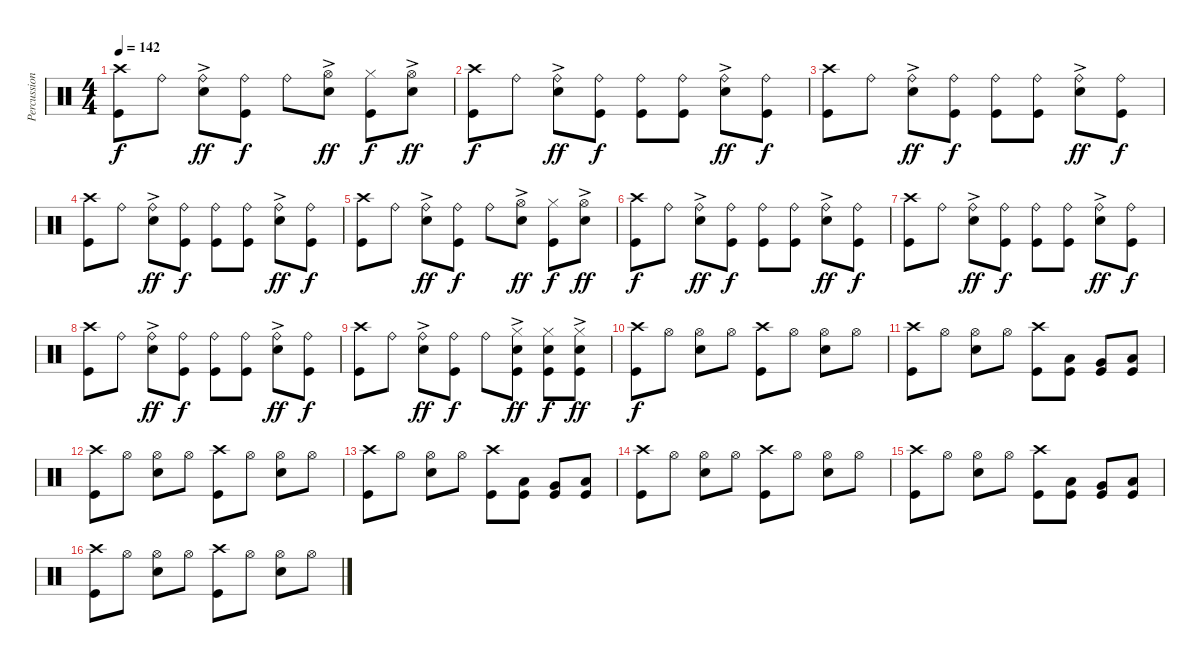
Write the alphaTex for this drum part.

\track ("Percussion" "Percussion") {instrument percussion}
\staff {score}
\articulation defaults
\ts (4 4)
\tempo 142
\clef neutral
\ks c
("Crash high (hit)" "Kick (hit)").8{dy f} "Ride (bell)".8 ("Ride (bell)" "Electric Snare (hit)"{ac}).8{dy ff} ("Ride (bell)" "Kick (hit)").8{dy f} "Ride (bell)".8 ("Hi-Hat (open)" "Electric Snare (hit)"{ac}).8{dy ff} ("Hi-Hat (closed)" "Kick (hit)").8{dy f} ("Hi-Hat (open)" "Electric Snare (hit)"{ac}).8{dy ff} |
("Crash high (hit)" "Kick (hit)").8{dy f} "Ride (bell)".8 ("Ride (bell)" "Electric Snare (hit)"{ac}).8{dy ff} ("Ride (bell)" "Kick (hit)").8{dy f} ("Ride (bell)" "Kick (hit)").8 ("Ride (bell)" "Kick (hit)").8 ("Ride (bell)" "Electric Snare (hit)"{ac}).8{dy ff} ("Ride (bell)" "Kick (hit)").8{dy f} |
("Crash high (hit)" "Kick (hit)").8 "Ride (bell)".8 ("Ride (bell)" "Electric Snare (hit)"{ac}).8{dy ff} ("Ride (bell)" "Kick (hit)").8{dy f} ("Ride (bell)" "Kick (hit)").8 ("Ride (bell)" "Kick (hit)").8 ("Ride (bell)" "Electric Snare (hit)"{ac}).8{dy ff} ("Ride (bell)" "Kick (hit)").8{dy f} |
("Crash high (hit)" "Kick (hit)").8 "Ride (bell)".8 ("Ride (bell)" "Electric Snare (hit)"{ac}).8{dy ff} ("Ride (bell)" "Kick (hit)").8{dy f} ("Ride (bell)" "Kick (hit)").8 ("Ride (bell)" "Kick (hit)").8 ("Ride (bell)" "Electric Snare (hit)"{ac}).8{dy ff} ("Ride (bell)" "Kick (hit)").8{dy f} |
("Crash high (hit)" "Kick (hit)").8 "Ride (bell)".8 ("Ride (bell)" "Electric Snare (hit)"{ac}).8{dy ff} ("Ride (bell)" "Kick (hit)").8{dy f} "Ride (bell)".8 ("Hi-Hat (open)" "Electric Snare (hit)"{ac}).8{dy ff} ("Hi-Hat (closed)" "Kick (hit)").8{dy f} ("Hi-Hat (open)" "Electric Snare (hit)"{ac}).8{dy ff} |
("Crash high (hit)" "Kick (hit)").8{dy f} "Ride (bell)".8 ("Ride (bell)" "Electric Snare (hit)"{ac}).8{dy ff} ("Ride (bell)" "Kick (hit)").8{dy f} ("Ride (bell)" "Kick (hit)").8 ("Ride (bell)" "Kick (hit)").8 ("Ride (bell)" "Electric Snare (hit)"{ac}).8{dy ff} ("Ride (bell)" "Kick (hit)").8{dy f} |
("Crash high (hit)" "Kick (hit)").8 "Ride (bell)".8 ("Ride (bell)" "Electric Snare (hit)"{ac}).8{dy ff} ("Ride (bell)" "Kick (hit)").8{dy f} ("Ride (bell)" "Kick (hit)").8 ("Ride (bell)" "Kick (hit)").8 ("Ride (bell)" "Electric Snare (hit)"{ac}).8{dy ff} ("Ride (bell)" "Kick (hit)").8{dy f} |
("Crash high (hit)" "Kick (hit)").8 "Ride (bell)".8 ("Ride (bell)" "Electric Snare (hit)"{ac}).8{dy ff} ("Ride (bell)" "Kick (hit)").8{dy f} ("Ride (bell)" "Kick (hit)").8 ("Ride (bell)" "Kick (hit)").8 ("Ride (bell)" "Electric Snare (hit)"{ac}).8{dy ff} ("Ride (bell)" "Kick (hit)").8{dy f} |
("Crash high (hit)" "Kick (hit)").8 "Ride (bell)".8 ("Ride (bell)" "Electric Snare (hit)"{ac}).8{dy ff} ("Ride (bell)" "Kick (hit)").8{dy f} "Ride (bell)".8 ("Hi-Hat (closed)" "Electric Snare (hit)"{ac} "Kick (hit)").8{dy ff} ("Hi-Hat (closed)" "Electric Snare (hit)" "Kick (hit)").8{dy f} ("Hi-Hat (closed)" "Electric Snare (hit)"{ac} "Kick (hit)").8{dy ff} |
("Crash high (hit)" "Kick (hit)").8{dy f} "Hi-Hat (open)".8 ("Hi-Hat (open)" "Electric Snare (hit)").8 "Hi-Hat (open)".8 ("Crash high (hit)" "Kick (hit)").8 "Hi-Hat (open)".8 ("Hi-Hat (open)" "Electric Snare (hit)").8 "Hi-Hat (open)".8 |
("Crash high (hit)" "Kick (hit)").8 "Hi-Hat (open)".8 ("Hi-Hat (open)" "Electric Snare (hit)").8 "Hi-Hat (open)".8 ("Crash high (hit)" "Kick (hit)").8 ("Low Tom (hit)" "Kick (hit)").8 ("Very Low Tom (hit)" "Kick (hit)").8 ("Low Floor Tom (hit)" "Kick (hit)").8 |
("Crash high (hit)" "Kick (hit)").8 "Hi-Hat (open)".8 ("Hi-Hat (open)" "Electric Snare (hit)").8 "Hi-Hat (open)".8 ("Crash high (hit)" "Kick (hit)").8 "Hi-Hat (open)".8 ("Hi-Hat (open)" "Electric Snare (hit)").8 "Hi-Hat (open)".8 |
("Crash high (hit)" "Kick (hit)").8 "Hi-Hat (open)".8 ("Hi-Hat (open)" "Electric Snare (hit)").8 "Hi-Hat (open)".8 ("Crash high (hit)" "Kick (hit)").8 ("Low Tom (hit)" "Kick (hit)").8 ("Very Low Tom (hit)" "Kick (hit)").8 ("Low Floor Tom (hit)" "Kick (hit)").8 |
("Crash high (hit)" "Kick (hit)").8 "Hi-Hat (open)".8 ("Hi-Hat (open)" "Electric Snare (hit)").8 "Hi-Hat (open)".8 ("Crash high (hit)" "Kick (hit)").8 "Hi-Hat (open)".8 ("Hi-Hat (open)" "Electric Snare (hit)").8 "Hi-Hat (open)".8 |
("Crash high (hit)" "Kick (hit)").8 "Hi-Hat (open)".8 ("Hi-Hat (open)" "Electric Snare (hit)").8 "Hi-Hat (open)".8 ("Crash high (hit)" "Kick (hit)").8 ("Low Tom (hit)" "Kick (hit)").8 ("Very Low Tom (hit)" "Kick (hit)").8 ("Low Floor Tom (hit)" "Kick (hit)").8 |
("Crash high (hit)" "Kick (hit)").8 "Hi-Hat (open)".8 ("Hi-Hat (open)" "Electric Snare (hit)").8 "Hi-Hat (open)".8 ("Crash high (hit)" "Kick (hit)").8 "Hi-Hat (open)".8 ("Hi-Hat (open)" "Electric Snare (hit)").8 "Hi-Hat (open)".8
